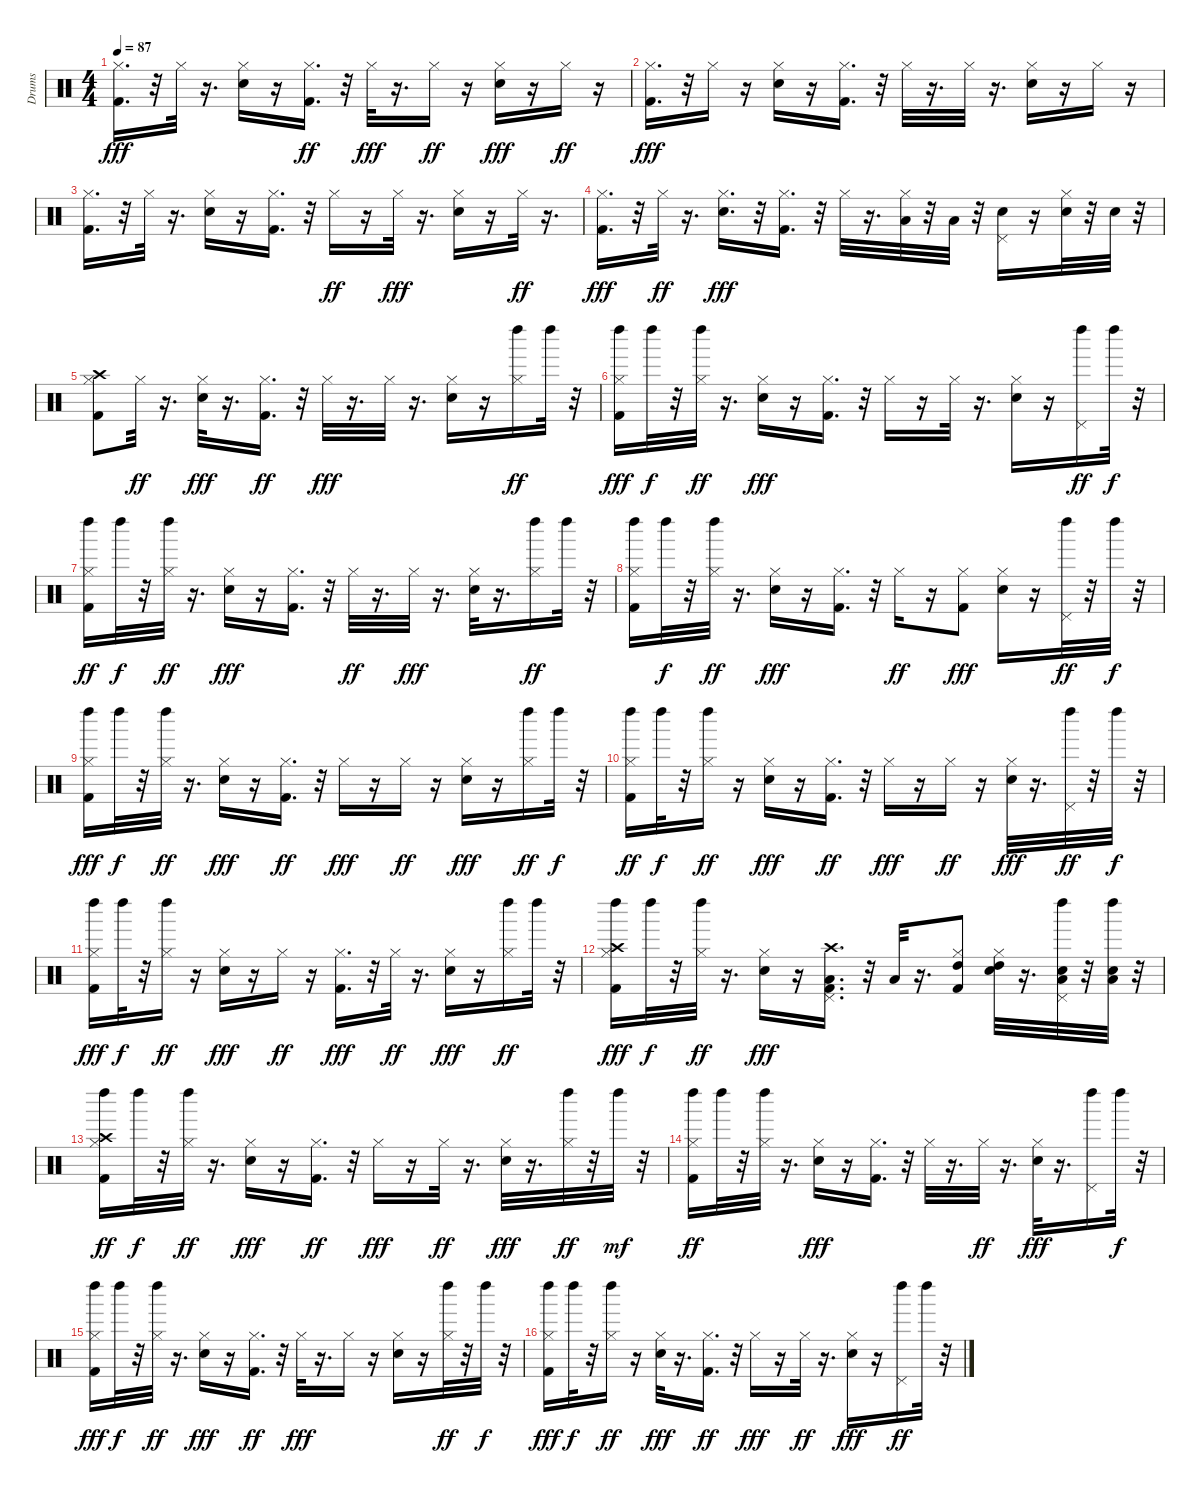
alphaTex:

\track ("Drums   " "Drums   ") {instrument percussion}
\staff {score}
\articulation defaults
\ts (4 4)
\tempo 87
\clef neutral
\ks c
("Kick (hit) 2" "Hi-Hat (closed)").16{d dy fff} r.32 "Hi-Hat (closed)".32 r.16{d} ("Hi-Hat (closed)" "Snare (hit) 2").16 r.16 ("Kick (hit) 2" "Hi-Hat (closed)").16{d dy ff} r.32 "Hi-Hat (closed)".32{dy fff} r.16{d} "Hi-Hat (closed)".16{dy ff} r.16 ("Hi-Hat (closed)" "Snare (hit) 2").16{dy fff} r.16 "Hi-Hat (closed)".16{dy ff} r.16 |
("Kick (hit) 2" "Hi-Hat (closed)").16{d dy fff} r.32 "Hi-Hat (closed)".16 r.16 ("Hi-Hat (closed)" "Snare (hit) 2").16 r.16 ("Kick (hit) 2" "Hi-Hat (closed)").16{d} r.32 "Hi-Hat (closed)".32 r.16{d} "Hi-Hat (closed)".32 r.16{d} ("Hi-Hat (closed)" "Snare (hit) 2").16 r.16 "Hi-Hat (closed)".16 r.16 |
("Kick (hit) 2" "Hi-Hat (closed)").16{d} r.32 "Hi-Hat (closed)".32 r.16{d} ("Hi-Hat (closed)" "Snare (hit) 2").16 r.16 ("Kick (hit) 2" "Hi-Hat (closed)").16{d} r.32 "Hi-Hat (closed)".16{dy ff} r.16 "Hi-Hat (closed)".32{dy fff} r.16{d} ("Hi-Hat (closed)" "Snare (hit) 2").16 r.16 "Hi-Hat (closed)".32{dy ff} r.16{d} |
("Kick (hit) 2" "Hi-Hat (closed)").16{d dy fff} r.32 "Hi-Hat (closed)".32{dy ff} r.16{d} ("Hi-Hat (closed)" "Snare (hit) 2").16{d dy fff} r.32 ("Kick (hit) 2" "Hi-Hat (closed)").16{d} r.32 "Hi-Hat (closed)".32 r.16{d} ("Hi-Hat (closed)" "Low Tom (hit)").32 r.32 "Low Floor Tom (hit)".32 r.32 ("Pedal Hi-Hat (hit)" "Snare (hit) 2").16 r.16 ("Hi-Hat (closed)" "Snare (hit) 2").32 r.32 "Snare (hit) 2".32 r.32 |
("Kick (hit) 2" "Hi-Hat (closed)" "Crash high (hit)").8 "Hi-Hat (closed)".32{dy ff} r.16{d} ("Hi-Hat (closed)" "Snare (hit) 2").32{dy fff} r.16{d} ("Kick (hit) 2" "Hi-Hat (closed)").16{d dy ff} r.32 "Hi-Hat (closed)".32{dy fff} r.16{d} "Hi-Hat (closed)".32 r.16{d} ("Hi-Hat (closed)" "Snare (hit) 2").16 r.16 ("Hi-Hat (closed)" "Left Maraca (hit)").16{dy ff} "Left Maraca (hit)".32 r.32 |
("Kick (hit) 2" "Hi-Hat (closed)" "Left Maraca (hit)").16{dy fff} "Left Maraca (hit)".32{dy f} r.32 ("Hi-Hat (closed)" "Left Maraca (hit)").32{dy ff} r.16{d} ("Hi-Hat (closed)" "Snare (hit) 2").16{dy fff} r.16 ("Kick (hit) 2" "Hi-Hat (closed)").16{d} r.32 "Hi-Hat (closed)".16 r.16 "Hi-Hat (closed)".32 r.16{d} ("Hi-Hat (closed)" "Snare (hit) 2").16 r.16 ("Pedal Hi-Hat (hit)" "Left Maraca (hit)").16{dy ff} "Left Maraca (hit)".32{dy f} r.32 |
("Kick (hit) 2" "Hi-Hat (closed)" "Left Maraca (hit)").16{dy ff} "Left Maraca (hit)".32{dy f} r.32 ("Hi-Hat (closed)" "Left Maraca (hit)").32{dy ff} r.16{d} ("Hi-Hat (closed)" "Snare (hit) 2").16{dy fff} r.16 ("Kick (hit) 2" "Hi-Hat (closed)").16{d} r.32 "Hi-Hat (closed)".32{dy ff} r.16{d} "Hi-Hat (closed)".32{dy fff} r.16{d} ("Hi-Hat (closed)" "Snare (hit) 2").32 r.16{d} ("Hi-Hat (closed)" "Left Maraca (hit)").16{dy ff} "Left Maraca (hit)".32 r.32 |
("Kick (hit) 2" "Hi-Hat (closed)" "Left Maraca (hit)").16 "Left Maraca (hit)".32{dy f} r.32 ("Hi-Hat (closed)" "Left Maraca (hit)").32{dy ff} r.16{d} ("Hi-Hat (closed)" "Snare (hit) 2").16{dy fff} r.16 ("Kick (hit) 2" "Hi-Hat (closed)").16{d} r.32 "Hi-Hat (closed)".16{dy ff} r.16 ("Kick (hit) 2" "Hi-Hat (closed)").8{dy fff} ("Hi-Hat (closed)" "Snare (hit) 2").16 r.16 ("Pedal Hi-Hat (hit)" "Left Maraca (hit)").32{dy ff} r.32 "Left Maraca (hit)".32{dy f} r.32 |
("Kick (hit) 2" "Hi-Hat (closed)" "Left Maraca (hit)").16{dy fff} "Left Maraca (hit)".32{dy f} r.32 ("Hi-Hat (closed)" "Left Maraca (hit)").32{dy ff} r.16{d} ("Hi-Hat (closed)" "Snare (hit) 2").16{dy fff} r.16 ("Kick (hit) 2" "Hi-Hat (closed)").16{d dy ff} r.32 "Hi-Hat (closed)".16{dy fff} r.16 "Hi-Hat (closed)".16{dy ff} r.16 ("Hi-Hat (closed)" "Snare (hit) 2").16{dy fff} r.16 ("Hi-Hat (closed)" "Left Maraca (hit)").16{dy ff} "Left Maraca (hit)".32{dy f} r.32 |
("Kick (hit) 2" "Hi-Hat (closed)" "Left Maraca (hit)").16{dy ff} "Left Maraca (hit)".32{dy f} r.32 ("Hi-Hat (closed)" "Left Maraca (hit)").16{dy ff} r.16 ("Hi-Hat (closed)" "Snare (hit) 2").16{dy fff} r.16 ("Kick (hit) 2" "Hi-Hat (closed)").16{d dy ff} r.32 "Hi-Hat (closed)".16{dy fff} r.16 "Hi-Hat (closed)".16{dy ff} r.16 ("Hi-Hat (closed)" "Snare (hit) 2").32{dy fff} r.16{d} ("Pedal Hi-Hat (hit)" "Left Maraca (hit)").32{dy ff} r.32 "Left Maraca (hit)".32{dy f} r.32 |
("Kick (hit) 2" "Hi-Hat (closed)" "Left Maraca (hit)").16{dy fff} "Left Maraca (hit)".32{dy f} r.32 ("Hi-Hat (closed)" "Left Maraca (hit)").16{dy ff} r.16 ("Hi-Hat (closed)" "Snare (hit) 2").16{dy fff} r.16 "Hi-Hat (closed)".16{dy ff} r.16 ("Kick (hit) 2" "Hi-Hat (closed)").16{d dy fff} r.32 "Hi-Hat (closed)".32{dy ff} r.16{d} ("Hi-Hat (closed)" "Snare (hit) 2").16{dy fff} r.16 ("Hi-Hat (closed)" "Left Maraca (hit)").16{dy ff} "Left Maraca (hit)".32 r.32 |
("Kick (hit) 2" "Hi-Hat (closed)" "Crash high (hit)" "Left Maraca (hit)").16{dy fff} "Left Maraca (hit)".32{dy f} r.32 ("Hi-Hat (closed)" "Left Maraca (hit)").32{dy ff} r.16{d} ("Hi-Hat (closed)" "Snare (hit) 2").16{dy fff} r.16 ("Kick (hit) 2" "Pedal Hi-Hat (hit)" "Low Tom (hit)" "Crash high (hit)").16{d} r.32 "Low Tom (hit)".32 r.16{d} ("Kick (hit) 2" "Hi-Hat (closed)" "High Tom (hit)").8 ("Hi-Hat (closed)" "Snare (hit) 2" "High Tom (hit)").32 r.16{d} ("Pedal Hi-Hat (hit)" "Low Tom (hit)" "Snare (hit) 2" "Left Maraca (hit)").32 r.32 ("Low Floor Tom (hit)" "Left Maraca (hit)" "Snare (hit) 2").32 r.32 |
("Kick (hit) 2" "Hi-Hat (closed)" "Crash high (hit)" "Left Maraca (hit)").16{dy ff} "Left Maraca (hit)".32{dy f} r.32 ("Hi-Hat (closed)" "Left Maraca (hit)").32{dy ff} r.16{d} ("Hi-Hat (closed)" "Snare (hit) 2").16{dy fff} r.16 ("Kick (hit) 2" "Hi-Hat (closed)").16{d dy ff} r.32 "Hi-Hat (closed)".16{dy fff} r.16 "Hi-Hat (closed)".32{dy ff} r.16{d} ("Hi-Hat (closed)" "Snare (hit) 2").32{dy fff} r.16{d} ("Hi-Hat (closed)" "Left Maraca (hit)").32{dy ff} r.32 "Left Maraca (hit)".32{dy mf} r.32 |
("Kick (hit) 2" "Hi-Hat (closed)" "Left Maraca (hit)").16{dy ff} "Left Maraca (hit)".32 r.32 ("Hi-Hat (closed)" "Left Maraca (hit)").32 r.16{d} ("Hi-Hat (closed)" "Snare (hit) 2").16{dy fff} r.16 ("Kick (hit) 2" "Hi-Hat (closed)").16{d} r.32 "Hi-Hat (closed)".32 r.16{d} "Hi-Hat (closed)".32{dy ff} r.16{d} ("Hi-Hat (closed)" "Snare (hit) 2").32{dy fff} r.16{d} ("Pedal Hi-Hat (hit)" "Left Maraca (hit)").16 "Left Maraca (hit)".32{dy f} r.32 |
("Kick (hit) 2" "Hi-Hat (closed)" "Left Maraca (hit)").16{dy fff} "Left Maraca (hit)".32{dy f} r.32 ("Hi-Hat (closed)" "Left Maraca (hit)").32{dy ff} r.16{d} ("Hi-Hat (closed)" "Snare (hit) 2").16{dy fff} r.16 ("Kick (hit) 2" "Hi-Hat (closed)").16{d dy ff} r.32 "Hi-Hat (closed)".32{dy fff} r.16{d} "Hi-Hat (closed)".16 r.16 ("Hi-Hat (closed)" "Snare (hit) 2").16 r.16 ("Hi-Hat (closed)" "Left Maraca (hit)").32{dy ff} r.32 "Left Maraca (hit)".32{dy f} r.32 |
("Kick (hit) 2" "Hi-Hat (closed)" "Left Maraca (hit)").16{dy fff} "Left Maraca (hit)".32{dy f} r.32 ("Hi-Hat (closed)" "Left Maraca (hit)").16{dy ff} r.16 ("Hi-Hat (closed)" "Snare (hit) 2").32{dy fff} r.16{d} ("Kick (hit) 2" "Hi-Hat (closed)").16{d dy ff} r.32 "Hi-Hat (closed)".16{dy fff} r.16 "Hi-Hat (closed)".32{dy ff} r.16{d} ("Hi-Hat (closed)" "Snare (hit) 2").16{dy fff} r.16 ("Pedal Hi-Hat (hit)" "Left Maraca (hit)").16{dy ff} "Left Maraca (hit)".32 r.32
